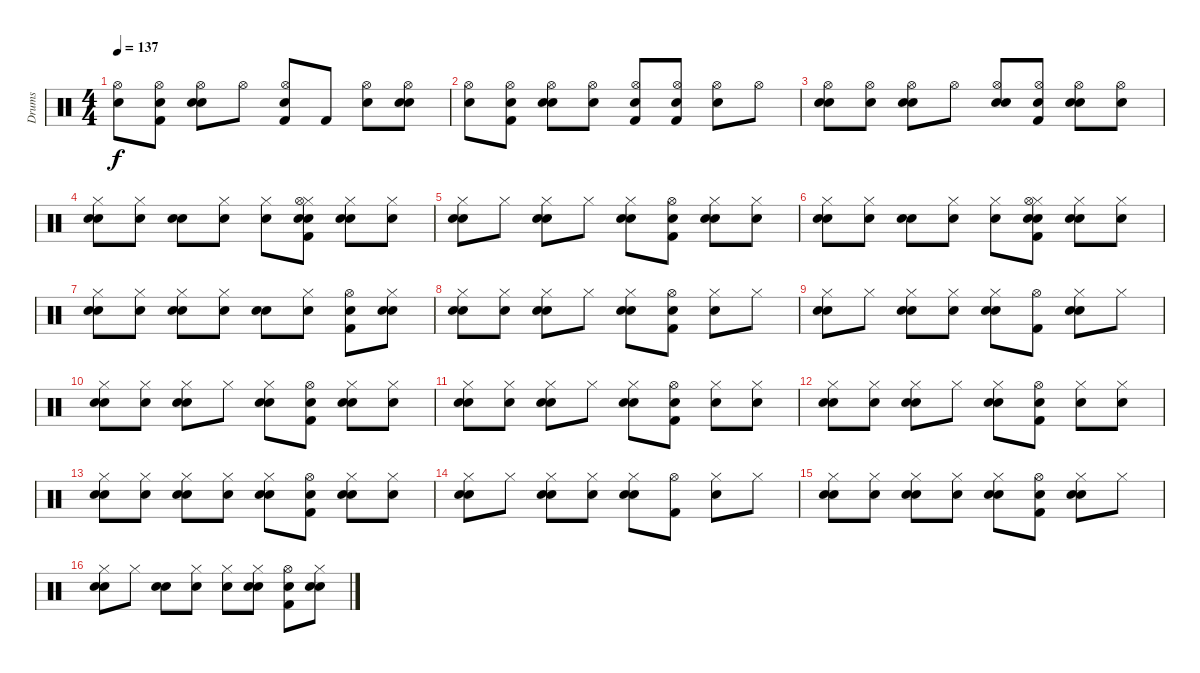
\track ("Drums" "Drums") {instrument percussion}
\staff {score}
\articulation defaults
\ts (4 4)
\tempo 137
\clef neutral
\ks c
("Snare (hit)" "Hi-Hat (open)").8{dy f} ("Snare (hit)" "Kick (hit) 2" "Hi-Hat (open)").8 ("Snare (hit)" "Hi-Hat (open)" "Electric Snare (hit)").8 "Hi-Hat (open)".8 ("Snare (hit)" "Hi-Hat (open)" "Kick (hit) 2").8 "Kick (hit) 2".8 ("Snare (hit)" "Hi-Hat (open)").8 ("Snare (hit)" "Electric Snare (hit)" "Hi-Hat (open)").8 |
("Snare (hit)" "Hi-Hat (open)").8 ("Snare (hit)" "Hi-Hat (open)" "Kick (hit) 2").8 ("Snare (hit)" "Electric Snare (hit)" "Hi-Hat (open)").8 ("Snare (hit)" "Hi-Hat (open)").8 ("Snare (hit)" "Kick (hit) 2" "Hi-Hat (open)").8 ("Snare (hit)" "Hi-Hat (open)" "Kick (hit) 2").8 ("Hi-Hat (open)" "Electric Snare (hit)").8 "Hi-Hat (open)".8 |
("Snare (hit)" "Electric Snare (hit)" "Hi-Hat (open)").8 ("Snare (hit)" "Hi-Hat (open)").8 ("Snare (hit)" "Hi-Hat (open)" "Electric Snare (hit)").8 "Hi-Hat (open)".8 ("Snare (hit)" "Electric Snare (hit)" "Hi-Hat (open)").8 ("Snare (hit)" "Kick (hit) 2" "Hi-Hat (open)").8 ("Snare (hit)" "Electric Snare (hit)" "Hi-Hat (open)").8 ("Snare (hit)" "Hi-Hat (open)").8 |
("Snare (hit)" "Electric Snare (hit)" "Hi-Hat (closed)").8 ("Snare (hit)" "Hi-Hat (closed)").8 ("Snare (hit)" "Electric Snare (hit)").8 ("Snare (hit)" "Hi-Hat (closed)").8 ("Snare (hit)" "Hi-Hat (closed)").8 ("Snare (hit)" "Hi-Hat (closed)" "Electric Snare (hit)" "Kick (hit) 2" "Hi-Hat (open)").8 ("Snare (hit)" "Electric Snare (hit)" "Hi-Hat (closed)").8 ("Snare (hit)" "Hi-Hat (closed)").8 |
("Snare (hit)" "Hi-Hat (closed)" "Electric Snare (hit)").8 "Hi-Hat (closed)".8 ("Snare (hit)" "Hi-Hat (closed)" "Electric Snare (hit)").8 "Hi-Hat (closed)".8 ("Snare (hit)" "Electric Snare (hit)" "Hi-Hat (closed)").8 ("Snare (hit)" "Hi-Hat (open)" "Kick (hit) 2").8 ("Snare (hit)" "Electric Snare (hit)" "Hi-Hat (closed)").8 ("Snare (hit)" "Hi-Hat (closed)").8 |
("Snare (hit)" "Electric Snare (hit)" "Hi-Hat (closed)").8 ("Snare (hit)" "Hi-Hat (closed)").8 ("Snare (hit)" "Electric Snare (hit)").8 ("Snare (hit)" "Hi-Hat (closed)").8 ("Snare (hit)" "Hi-Hat (closed)").8 ("Snare (hit)" "Hi-Hat (closed)" "Electric Snare (hit)" "Kick (hit) 2" "Hi-Hat (open)").8 ("Snare (hit)" "Electric Snare (hit)" "Hi-Hat (closed)").8 ("Snare (hit)" "Hi-Hat (closed)").8 |
("Snare (hit)" "Electric Snare (hit)" "Hi-Hat (closed)").8 ("Snare (hit)" "Hi-Hat (closed)").8 ("Snare (hit)" "Electric Snare (hit)" "Hi-Hat (closed)").8 ("Snare (hit)" "Hi-Hat (closed)").8 ("Snare (hit)" "Electric Snare (hit)").8 ("Snare (hit)" "Hi-Hat (closed)").8 ("Snare (hit)" "Kick (hit) 2" "Hi-Hat (open)").8 ("Snare (hit)" "Hi-Hat (closed)" "Electric Snare (hit)").8 |
("Snare (hit)" "Electric Snare (hit)" "Hi-Hat (closed)").8 ("Snare (hit)" "Hi-Hat (closed)").8 ("Snare (hit)" "Hi-Hat (closed)" "Electric Snare (hit)").8 "Hi-Hat (closed)".8 ("Snare (hit)" "Electric Snare (hit)" "Hi-Hat (closed)").8 ("Snare (hit)" "Hi-Hat (open)" "Kick (hit) 2").8 ("Hi-Hat (closed)" "Electric Snare (hit)").8 "Hi-Hat (closed)".8 |
("Snare (hit)" "Hi-Hat (closed)" "Electric Snare (hit)").8 "Hi-Hat (closed)".8 ("Snare (hit)" "Electric Snare (hit)" "Hi-Hat (closed)").8 ("Snare (hit)" "Hi-Hat (closed)").8 ("Snare (hit)" "Hi-Hat (closed)" "Electric Snare (hit)").8 ("Kick (hit) 2" "Hi-Hat (open)").8 ("Snare (hit)" "Hi-Hat (closed)" "Electric Snare (hit)").8 "Hi-Hat (closed)".8 |
("Snare (hit)" "Electric Snare (hit)" "Hi-Hat (closed)").8 ("Snare (hit)" "Hi-Hat (closed)").8 ("Snare (hit)" "Hi-Hat (closed)" "Electric Snare (hit)").8 "Hi-Hat (closed)".8 ("Snare (hit)" "Electric Snare (hit)" "Hi-Hat (closed)").8 ("Snare (hit)" "Kick (hit) 2" "Hi-Hat (open)").8 ("Snare (hit)" "Electric Snare (hit)" "Hi-Hat (closed)").8 ("Snare (hit)" "Hi-Hat (closed)").8 |
("Snare (hit)" "Electric Snare (hit)" "Hi-Hat (closed)").8 ("Snare (hit)" "Hi-Hat (closed)").8 ("Snare (hit)" "Hi-Hat (closed)" "Electric Snare (hit)").8 "Hi-Hat (closed)".8 ("Snare (hit)" "Hi-Hat (closed)" "Electric Snare (hit)").8 ("Snare (hit)" "Hi-Hat (open)" "Kick (hit) 2").8 ("Electric Snare (hit)" "Hi-Hat (closed)").8 ("Snare (hit)" "Hi-Hat (closed)").8 |
("Snare (hit)" "Electric Snare (hit)" "Hi-Hat (closed)").8 ("Snare (hit)" "Hi-Hat (closed)").8 ("Snare (hit)" "Hi-Hat (closed)" "Electric Snare (hit)").8 "Hi-Hat (closed)".8 ("Snare (hit)" "Electric Snare (hit)" "Hi-Hat (closed)").8 ("Snare (hit)" "Hi-Hat (open)" "Kick (hit) 2").8 ("Electric Snare (hit)" "Hi-Hat (closed)").8 ("Snare (hit)" "Hi-Hat (closed)").8 |
("Snare (hit)" "Electric Snare (hit)" "Hi-Hat (closed)").8 ("Snare (hit)" "Hi-Hat (closed)").8 ("Snare (hit)" "Electric Snare (hit)" "Hi-Hat (closed)").8 ("Snare (hit)" "Hi-Hat (closed)").8 ("Snare (hit)" "Electric Snare (hit)" "Hi-Hat (closed)").8 ("Snare (hit)" "Kick (hit) 2" "Hi-Hat (open)").8 ("Snare (hit)" "Electric Snare (hit)" "Hi-Hat (closed)").8 ("Snare (hit)" "Hi-Hat (closed)").8 |
("Snare (hit)" "Hi-Hat (closed)" "Electric Snare (hit)").8 "Hi-Hat (closed)".8 ("Snare (hit)" "Electric Snare (hit)" "Hi-Hat (closed)").8 ("Snare (hit)" "Hi-Hat (closed)").8 ("Snare (hit)" "Hi-Hat (closed)" "Electric Snare (hit)").8 ("Hi-Hat (open)" "Kick (hit) 2").8 ("Hi-Hat (closed)" "Electric Snare (hit)").8 "Hi-Hat (closed)".8 |
("Snare (hit)" "Electric Snare (hit)" "Hi-Hat (closed)").8 ("Snare (hit)" "Hi-Hat (closed)").8 ("Snare (hit)" "Electric Snare (hit)" "Hi-Hat (closed)").8 ("Snare (hit)" "Hi-Hat (closed)").8 ("Snare (hit)" "Electric Snare (hit)" "Hi-Hat (closed)").8 ("Snare (hit)" "Kick (hit) 2" "Hi-Hat (open)").8 ("Snare (hit)" "Hi-Hat (closed)" "Electric Snare (hit)").8 "Hi-Hat (closed)".8 |
("Snare (hit)" "Hi-Hat (closed)" "Electric Snare (hit)").8 "Hi-Hat (closed)".8 ("Snare (hit)" "Electric Snare (hit)").8 ("Snare (hit)" "Hi-Hat (closed)").8 ("Snare (hit)" "Hi-Hat (closed)").8 ("Snare (hit)" "Electric Snare (hit)" "Hi-Hat (closed)").8 ("Snare (hit)" "Kick (hit) 2" "Hi-Hat (open)").8 ("Snare (hit)" "Electric Snare (hit)" "Hi-Hat (closed)").8
